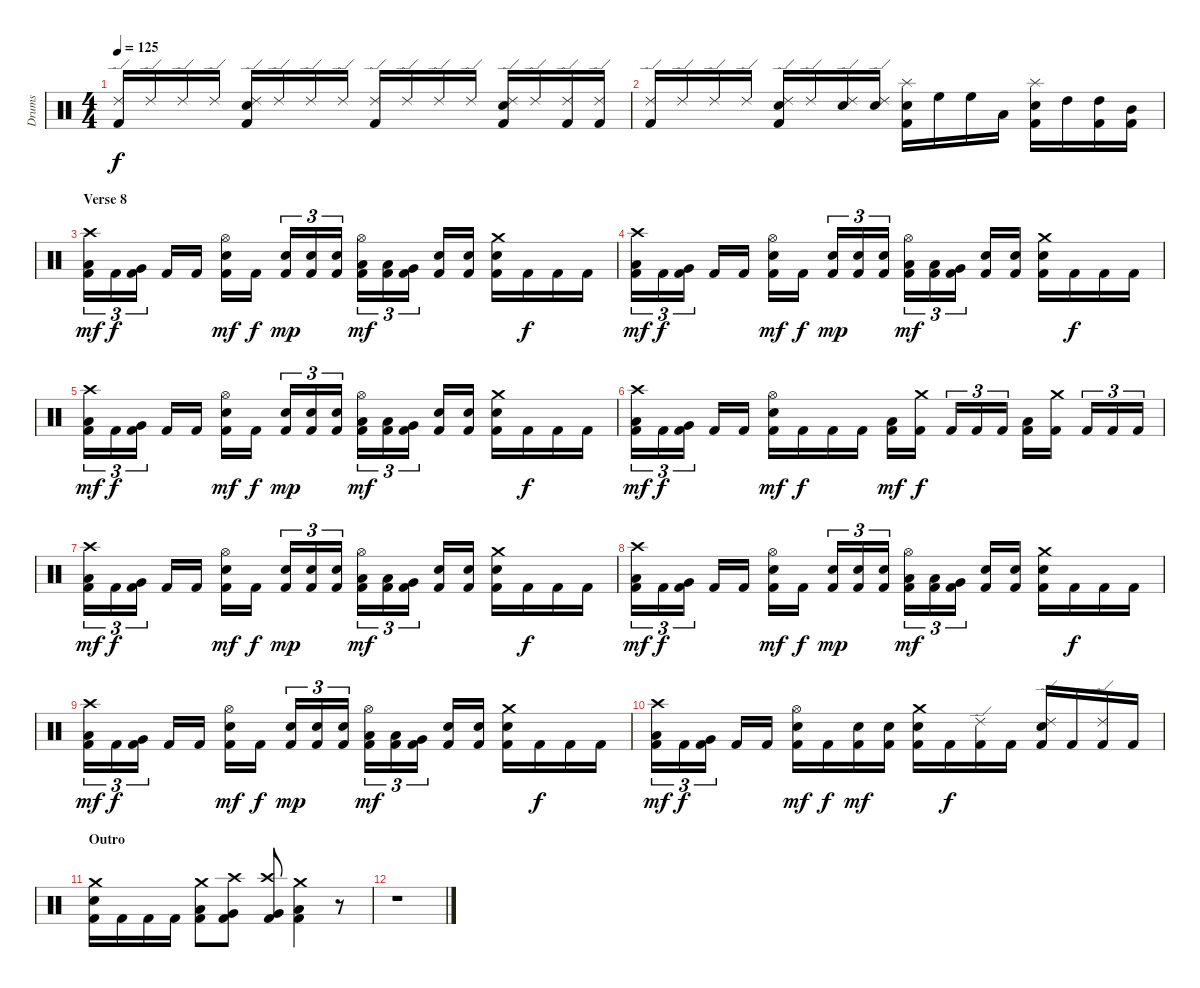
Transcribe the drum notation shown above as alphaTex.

\track ("Drums" "Drums") {instrument percussion}
\staff {score}
\articulation defaults
\ts (4 4)
\tempo 125
\clef neutral
\ks c
("Kick (hit) 2" "Ride (edge) 2").16{dy f} "Ride (edge) 2".16 "Ride (edge) 2".16 "Ride (edge) 2".16 ("Kick (hit) 2" "Electric Snare (hit)" "Ride (edge) 2").16 "Ride (edge) 2".16 "Ride (edge) 2".16 "Ride (edge) 2".16 ("Kick (hit) 2" "Ride (edge) 2").16 "Ride (edge) 2".16 "Ride (edge) 2".16 "Ride (edge) 2".16 ("Kick (hit) 2" "Electric Snare (hit)" "Ride (edge) 2").16 "Ride (edge) 2".16 ("Kick (hit) 2" "Ride (edge) 2").16 ("Kick (hit) 2" "Ride (edge) 2").16 |
("Kick (hit) 2" "Ride (edge) 2").16 "Ride (edge) 2".16 "Ride (edge) 2".16 "Ride (edge) 2".16 ("Kick (hit) 2" "Electric Snare (hit)" "Ride (edge) 2").16 "Ride (edge) 2".16 ("Electric Snare (hit)" "Ride (edge) 2").16 ("Electric Snare (hit)" "Ride (edge) 2").16 ("Kick (hit) 2" "Electric Snare (hit)" "Splash (hit)").16 "High Floor Tom (hit)".16 "High Floor Tom (hit)".16 "Low Tom (hit)".16 ("Kick (hit) 2" "Electric Snare (hit)" "Splash (hit)").16 "High Tom (hit)".16 ("Kick (hit) 2" "High Tom (hit)").16 ("Kick (hit) 2" "Mid Tom (hit)").16 |
\section ("" "Verse 8")
("Kick (hit) 2" "Low Floor Tom (hit)" "Crash high (hit)").16{tu (3 2) dy mf} "Kick (hit) 2".16{tu (3 2) dy f} ("Kick (hit) 2" "Very Low Tom (hit)").16{tu (3 2)} "Kick (hit) 2".16 "Kick (hit) 2".16 ("Kick (hit) 2" "Electric Snare (hit)" "Hi-Hat (open)").16{dy mf} "Kick (hit) 2".16{dy f} ("Kick (hit) 2" "Electric Snare (hit)").16{tu (3 2) dy mp} ("Kick (hit) 2" "Electric Snare (hit)").16{tu (3 2)} ("Kick (hit) 2" "Electric Snare (hit)").16{tu (3 2)} ("Kick (hit) 2" "Low Floor Tom (hit)" "Hi-Hat (open)").16{tu (3 2) dy mf} ("Kick (hit) 2" "Low Floor Tom (hit)").16{tu (3 2)} ("Kick (hit) 2" "Very Low Tom (hit)").16{tu (3 2)} ("Kick (hit) 2" "Electric Snare (hit)").16 ("Kick (hit) 2" "Electric Snare (hit)").16 ("Kick (hit) 2" "Electric Snare (hit)" "Crash medium (hit)").16 "Kick (hit) 2".16{dy f} "Kick (hit) 2".16 "Kick (hit) 2".16 |
("Kick (hit) 2" "Low Floor Tom (hit)" "Crash high (hit)").16{tu (3 2) dy mf} "Kick (hit) 2".16{tu (3 2) dy f} ("Kick (hit) 2" "Very Low Tom (hit)").16{tu (3 2)} "Kick (hit) 2".16 "Kick (hit) 2".16 ("Kick (hit) 2" "Electric Snare (hit)" "Hi-Hat (open)").16{dy mf} "Kick (hit) 2".16{dy f} ("Kick (hit) 2" "Electric Snare (hit)").16{tu (3 2) dy mp} ("Kick (hit) 2" "Electric Snare (hit)").16{tu (3 2)} ("Kick (hit) 2" "Electric Snare (hit)").16{tu (3 2)} ("Kick (hit) 2" "Low Floor Tom (hit)" "Hi-Hat (open)").16{tu (3 2) dy mf} ("Kick (hit) 2" "Low Floor Tom (hit)").16{tu (3 2)} ("Kick (hit) 2" "Very Low Tom (hit)").16{tu (3 2)} ("Kick (hit) 2" "Electric Snare (hit)").16 ("Kick (hit) 2" "Electric Snare (hit)").16 ("Kick (hit) 2" "Electric Snare (hit)" "Crash medium (hit)").16 "Kick (hit) 2".16{dy f} "Kick (hit) 2".16 "Kick (hit) 2".16 |
("Kick (hit) 2" "Low Floor Tom (hit)" "Crash high (hit)").16{tu (3 2) dy mf} "Kick (hit) 2".16{tu (3 2) dy f} ("Kick (hit) 2" "Very Low Tom (hit)").16{tu (3 2)} "Kick (hit) 2".16 "Kick (hit) 2".16 ("Kick (hit) 2" "Electric Snare (hit)" "Hi-Hat (open)").16{dy mf} "Kick (hit) 2".16{dy f} ("Kick (hit) 2" "Electric Snare (hit)").16{tu (3 2) dy mp} ("Kick (hit) 2" "Electric Snare (hit)").16{tu (3 2)} ("Kick (hit) 2" "Electric Snare (hit)").16{tu (3 2)} ("Kick (hit) 2" "Low Floor Tom (hit)" "Hi-Hat (open)").16{tu (3 2) dy mf} ("Kick (hit) 2" "Low Floor Tom (hit)").16{tu (3 2)} ("Kick (hit) 2" "Very Low Tom (hit)").16{tu (3 2)} ("Kick (hit) 2" "Electric Snare (hit)").16 ("Kick (hit) 2" "Electric Snare (hit)").16 ("Kick (hit) 2" "Electric Snare (hit)" "Crash medium (hit)").16 "Kick (hit) 2".16{dy f} "Kick (hit) 2".16 "Kick (hit) 2".16 |
("Kick (hit) 2" "Low Floor Tom (hit)" "Crash high (hit)").16{tu (3 2) dy mf} "Kick (hit) 2".16{tu (3 2) dy f} ("Kick (hit) 2" "Very Low Tom (hit)").16{tu (3 2)} "Kick (hit) 2".16 "Kick (hit) 2".16 ("Kick (hit) 2" "Electric Snare (hit)" "Hi-Hat (open)").16{dy mf} "Kick (hit) 2".16{dy f} "Kick (hit) 2".16 "Kick (hit) 2".16 ("Kick (hit) 2" "Low Floor Tom (hit)").16{dy mf} ("Kick (hit) 2" "Crash medium (hit)").16{dy f} "Kick (hit) 2".16{tu (3 2)} "Kick (hit) 2".16{tu (3 2)} "Kick (hit) 2".16{tu (3 2)} ("Kick (hit) 2" "Low Floor Tom (hit)").16 ("Kick (hit) 2" "Crash medium (hit)").16 "Kick (hit) 2".16{tu (3 2)} "Kick (hit) 2".16{tu (3 2)} "Kick (hit) 2".16{tu (3 2)} |
("Kick (hit) 2" "Low Floor Tom (hit)" "Crash high (hit)").16{tu (3 2) dy mf} "Kick (hit) 2".16{tu (3 2) dy f} ("Kick (hit) 2" "Very Low Tom (hit)").16{tu (3 2)} "Kick (hit) 2".16 "Kick (hit) 2".16 ("Kick (hit) 2" "Electric Snare (hit)" "Hi-Hat (open)").16{dy mf} "Kick (hit) 2".16{dy f} ("Kick (hit) 2" "Electric Snare (hit)").16{tu (3 2) dy mp} ("Kick (hit) 2" "Electric Snare (hit)").16{tu (3 2)} ("Kick (hit) 2" "Electric Snare (hit)").16{tu (3 2)} ("Kick (hit) 2" "Low Floor Tom (hit)" "Hi-Hat (open)").16{tu (3 2) dy mf} ("Kick (hit) 2" "Low Floor Tom (hit)").16{tu (3 2)} ("Kick (hit) 2" "Very Low Tom (hit)").16{tu (3 2)} ("Kick (hit) 2" "Electric Snare (hit)").16 ("Kick (hit) 2" "Electric Snare (hit)").16 ("Kick (hit) 2" "Electric Snare (hit)" "Crash medium (hit)").16 "Kick (hit) 2".16{dy f} "Kick (hit) 2".16 "Kick (hit) 2".16 |
("Kick (hit) 2" "Low Floor Tom (hit)" "Crash high (hit)").16{tu (3 2) dy mf} "Kick (hit) 2".16{tu (3 2) dy f} ("Kick (hit) 2" "Very Low Tom (hit)").16{tu (3 2)} "Kick (hit) 2".16 "Kick (hit) 2".16 ("Kick (hit) 2" "Electric Snare (hit)" "Hi-Hat (open)").16{dy mf} "Kick (hit) 2".16{dy f} ("Kick (hit) 2" "Electric Snare (hit)").16{tu (3 2) dy mp} ("Kick (hit) 2" "Electric Snare (hit)").16{tu (3 2)} ("Kick (hit) 2" "Electric Snare (hit)").16{tu (3 2)} ("Kick (hit) 2" "Low Floor Tom (hit)" "Hi-Hat (open)").16{tu (3 2) dy mf} ("Kick (hit) 2" "Low Floor Tom (hit)").16{tu (3 2)} ("Kick (hit) 2" "Very Low Tom (hit)").16{tu (3 2)} ("Kick (hit) 2" "Electric Snare (hit)").16 ("Kick (hit) 2" "Electric Snare (hit)").16 ("Kick (hit) 2" "Electric Snare (hit)" "Crash medium (hit)").16 "Kick (hit) 2".16{dy f} "Kick (hit) 2".16 "Kick (hit) 2".16 |
("Kick (hit) 2" "Low Floor Tom (hit)" "Crash high (hit)").16{tu (3 2) dy mf} "Kick (hit) 2".16{tu (3 2) dy f} ("Kick (hit) 2" "Very Low Tom (hit)").16{tu (3 2)} "Kick (hit) 2".16 "Kick (hit) 2".16 ("Kick (hit) 2" "Electric Snare (hit)" "Hi-Hat (open)").16{dy mf} "Kick (hit) 2".16{dy f} ("Kick (hit) 2" "Electric Snare (hit)").16{tu (3 2) dy mp} ("Kick (hit) 2" "Electric Snare (hit)").16{tu (3 2)} ("Kick (hit) 2" "Electric Snare (hit)").16{tu (3 2)} ("Kick (hit) 2" "Low Floor Tom (hit)" "Hi-Hat (open)").16{tu (3 2) dy mf} ("Kick (hit) 2" "Low Floor Tom (hit)").16{tu (3 2)} ("Kick (hit) 2" "Very Low Tom (hit)").16{tu (3 2)} ("Kick (hit) 2" "Electric Snare (hit)").16 ("Kick (hit) 2" "Electric Snare (hit)").16 ("Kick (hit) 2" "Electric Snare (hit)" "Crash medium (hit)").16 "Kick (hit) 2".16{dy f} "Kick (hit) 2".16 "Kick (hit) 2".16 |
("Kick (hit) 2" "Low Floor Tom (hit)" "Crash high (hit)").16{tu (3 2) dy mf} "Kick (hit) 2".16{tu (3 2) dy f} ("Kick (hit) 2" "Very Low Tom (hit)").16{tu (3 2)} "Kick (hit) 2".16 "Kick (hit) 2".16 ("Kick (hit) 2" "Electric Snare (hit)" "Hi-Hat (open)").16{dy mf} "Kick (hit) 2".16{dy f} ("Kick (hit) 2" "Electric Snare (hit)").16{dy mf} ("Kick (hit) 2" "Electric Snare (hit)").16 ("Kick (hit) 2" "Electric Snare (hit)" "Crash medium (hit)").16 "Kick (hit) 2".16{dy f} ("Kick (hit) 2" "Ride (edge) 2").16 "Kick (hit) 2".16 ("Kick (hit) 2" "Electric Snare (hit)" "Ride (edge) 2").16 "Kick (hit) 2".16 ("Kick (hit) 2" "Ride (edge) 2").16 "Kick (hit) 2".16 |
\section ("" "Outro")
("Kick (hit) 2" "Electric Snare (hit)" "Crash medium (hit)").16 "Kick (hit) 2".16 "Kick (hit) 2".16 "Kick (hit) 2".16 ("Kick (hit) 2" "Low Floor Tom (hit)" "Crash medium (hit)").8 ("Kick (hit) 2" "Very Low Tom (hit)" "Crash high (hit)").8 ("Kick (hit) 2" "Very Low Tom (hit)" "Crash high (hit)").8 ("Kick (hit) 2" "Low Floor Tom (hit)" "Crash medium (hit)").4 r.8 |
r.1
